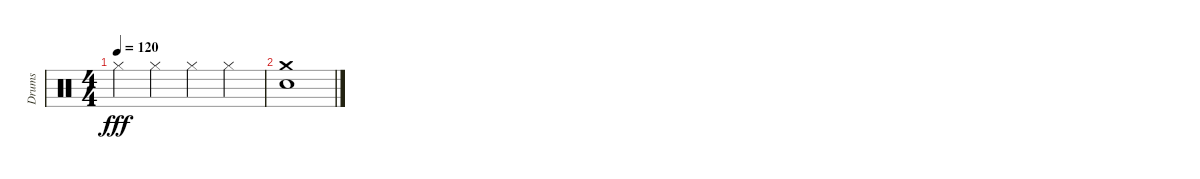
\track ("Drums" "Drums") {instrument percussion}
\staff {score}
\articulation defaults
\ts (4 4)
\tempo 120
\clef neutral
\ks c "Hi-Hat (closed)".4{dy fff} "Hi-Hat (closed)".4 "Hi-Hat (closed)".4 "Hi-Hat (closed)".4
|
("Crash medium (hit)" "Electric Snare (hit)").1
